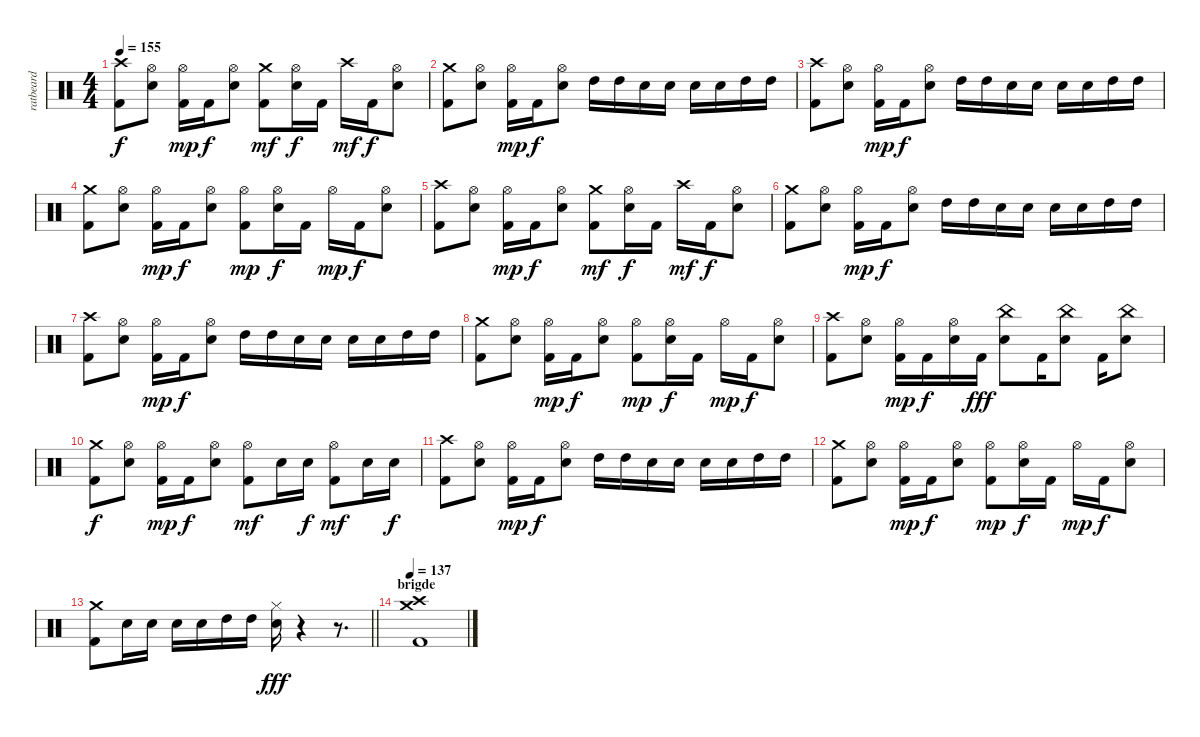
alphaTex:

\track ("ratbeard" "ratbeard") {instrument percussion}
\staff {score}
\articulation defaults
\ts (4 4)
\tempo 155
\clef neutral
\ks c
("Crash high (hit)" "Kick (hit) 2").8{dy f} ("Hi-Hat (open)" "Electric Snare (hit)").8 ("Hi-Hat (open)" "Kick (hit) 2").16{dy mp} "Kick (hit) 2".16{dy f} ("Hi-Hat (open)" "Electric Snare (hit)").8 ("Crash medium (hit)" "Kick (hit) 2").8{dy mf} ("Hi-Hat (open)" "Electric Snare (hit)").16{dy f} "Kick (hit) 2".16 "Crash high (hit)".16{dy mf} "Kick (hit) 2".16{dy f} ("Hi-Hat (open)" "Electric Snare (hit)").8 |
("Crash medium (hit)" "Kick (hit) 2").8 ("Hi-Hat (open)" "Electric Snare (hit)").8 ("Hi-Hat (open)" "Kick (hit) 2").16{dy mp} "Kick (hit) 2".16{dy f} ("Hi-Hat (open)" "Electric Snare (hit)").8 "High Tom (hit)".16 "High Tom (hit)".16 "Electric Snare (hit)".16 "Electric Snare (hit)".16 "Electric Snare (hit)".16 "Electric Snare (hit)".16 "High Tom (hit)".16 "High Tom (hit)".16 |
("Crash high (hit)" "Kick (hit) 2").8 ("Hi-Hat (open)" "Electric Snare (hit)").8 ("Hi-Hat (open)" "Kick (hit) 2").16{dy mp} "Kick (hit) 2".16{dy f} ("Hi-Hat (open)" "Electric Snare (hit)").8 "High Tom (hit)".16 "High Tom (hit)".16 "Electric Snare (hit)".16 "Electric Snare (hit)".16 "Electric Snare (hit)".16 "Electric Snare (hit)".16 "High Tom (hit)".16 "High Tom (hit)".16 |
("Crash medium (hit)" "Kick (hit) 2").8 ("Hi-Hat (open)" "Electric Snare (hit)").8 ("Hi-Hat (open)" "Kick (hit) 2").16{dy mp} "Kick (hit) 2".16{dy f} ("Hi-Hat (open)" "Electric Snare (hit)").8 ("Hi-Hat (open)" "Kick (hit) 2").8{dy mp} ("Hi-Hat (open)" "Electric Snare (hit)").16{dy f} "Kick (hit) 2".16 "Hi-Hat (open)".16{dy mp} "Kick (hit) 2".16{dy f} ("Hi-Hat (open)" "Electric Snare (hit)").8 |
("Crash high (hit)" "Kick (hit) 2").8 ("Hi-Hat (open)" "Electric Snare (hit)").8 ("Hi-Hat (open)" "Kick (hit) 2").16{dy mp} "Kick (hit) 2".16{dy f} ("Hi-Hat (open)" "Electric Snare (hit)").8 ("Crash medium (hit)" "Kick (hit) 2").8{dy mf} ("Hi-Hat (open)" "Electric Snare (hit)").16{dy f} "Kick (hit) 2".16 "Crash high (hit)".16{dy mf} "Kick (hit) 2".16{dy f} ("Hi-Hat (open)" "Electric Snare (hit)").8 |
("Crash medium (hit)" "Kick (hit) 2").8 ("Hi-Hat (open)" "Electric Snare (hit)").8 ("Hi-Hat (open)" "Kick (hit) 2").16{dy mp} "Kick (hit) 2".16{dy f} ("Hi-Hat (open)" "Electric Snare (hit)").8 "High Tom (hit)".16 "High Tom (hit)".16 "Electric Snare (hit)".16 "Electric Snare (hit)".16 "Electric Snare (hit)".16 "Electric Snare (hit)".16 "High Tom (hit)".16 "High Tom (hit)".16 |
("Crash high (hit)" "Kick (hit) 2").8 ("Hi-Hat (open)" "Electric Snare (hit)").8 ("Hi-Hat (open)" "Kick (hit) 2").16{dy mp} "Kick (hit) 2".16{dy f} ("Hi-Hat (open)" "Electric Snare (hit)").8 "High Tom (hit)".16 "High Tom (hit)".16 "Electric Snare (hit)".16 "Electric Snare (hit)".16 "Electric Snare (hit)".16 "Electric Snare (hit)".16 "High Tom (hit)".16 "High Tom (hit)".16 |
("Crash medium (hit)" "Kick (hit) 2").8 ("Hi-Hat (open)" "Electric Snare (hit)").8 ("Hi-Hat (open)" "Kick (hit) 2").16{dy mp} "Kick (hit) 2".16{dy f} ("Hi-Hat (open)" "Electric Snare (hit)").8 ("Hi-Hat (open)" "Kick (hit) 2").8{dy mp} ("Hi-Hat (open)" "Electric Snare (hit)").16{dy f} "Kick (hit) 2".16 "Hi-Hat (open)".16{dy mp} "Kick (hit) 2".16{dy f} ("Hi-Hat (open)" "Electric Snare (hit)").8 |
("Crash high (hit)" "Kick (hit) 2").8 ("Hi-Hat (open)" "Electric Snare (hit)").8 ("Hi-Hat (open)" "Kick (hit) 2").16{dy mp} "Kick (hit) 2".16{dy f} ("Hi-Hat (open)" "Electric Snare (hit)").16 "Kick (hit) 2".16{dy fff} ("China (hit)" "Electric Snare (hit)").8 "Kick (hit) 2".16 ("China (hit)" "Electric Snare (hit)").8 "Kick (hit) 2".16 ("China (hit)" "Electric Snare (hit)").8 |
("Crash medium (hit)" "Kick (hit) 2").8{dy f} ("Hi-Hat (open)" "Electric Snare (hit)").8 ("Hi-Hat (open)" "Kick (hit) 2").16{dy mp} "Kick (hit) 2".16{dy f} ("Hi-Hat (open)" "Electric Snare (hit)").8 ("Hi-Hat (open)" "Kick (hit) 2").8{dy mf} "Electric Snare (hit)".16 "Electric Snare (hit)".16{dy f} ("Hi-Hat (open)" "Kick (hit) 2").8{dy mf} "Electric Snare (hit)".16 "Electric Snare (hit)".16{dy f} |
("Crash high (hit)" "Kick (hit) 2").8 ("Hi-Hat (open)" "Electric Snare (hit)").8 ("Hi-Hat (open)" "Kick (hit) 2").16{dy mp} "Kick (hit) 2".16{dy f} ("Hi-Hat (open)" "Electric Snare (hit)").8 "High Tom (hit)".16 "High Tom (hit)".16 "Electric Snare (hit)".16 "Electric Snare (hit)".16 "Electric Snare (hit)".16 "Electric Snare (hit)".16 "High Tom (hit)".16 "High Tom (hit)".16 |
("Crash medium (hit)" "Kick (hit) 2").8 ("Hi-Hat (open)" "Electric Snare (hit)").8 ("Hi-Hat (open)" "Kick (hit) 2").16{dy mp} "Kick (hit) 2".16{dy f} ("Hi-Hat (open)" "Electric Snare (hit)").8 ("Hi-Hat (open)" "Kick (hit) 2").8{dy mp} ("Hi-Hat (open)" "Electric Snare (hit)").16{dy f} "Kick (hit) 2".16 "Hi-Hat (open)".16{dy mp} "Kick (hit) 2".16{dy f} ("Hi-Hat (open)" "Electric Snare (hit)").8 |
\barLineRight lightlight
("Crash medium (hit)" "Kick (hit) 2").8 "Electric Snare (hit)".16 "Electric Snare (hit)".16 "Electric Snare (hit)".16 "Electric Snare (hit)".16 "High Tom (hit)".16 "High Tom (hit)".16 ("Hi-Hat (closed)" "Electric Snare (hit)").16{dy fff} r.4 r.8{d} |
\section ("" "brigde")
\tempo 137
("Crash medium (hit)" "Crash high (hit)" "Kick (hit) 2").1
